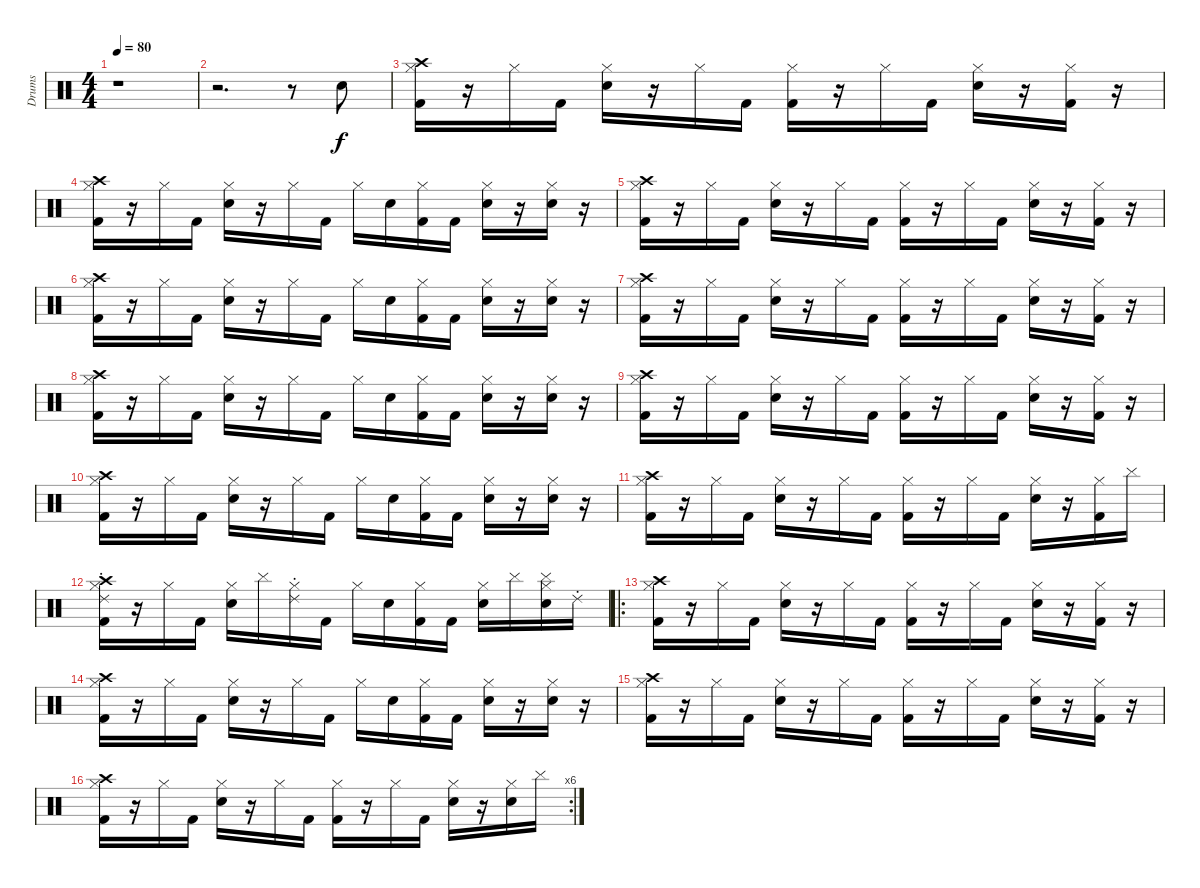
\track ("Drums" "Drums") {instrument percussion}
\staff {score}
\articulation defaults
\ts (4 4)
\tempo 80
\clef neutral
\ks c
r.1{dy f} |
r.2{d} r.8 "Snare (hit) 2".8 |
("Hi-Hat (closed)" "Crash high (hit)" "Kick (hit) 2").16 r.16 "Hi-Hat (closed)".16 "Kick (hit) 2".16 ("Hi-Hat (closed)" "Snare (hit) 2").16 r.16 "Hi-Hat (closed)".16 "Kick (hit) 2".16 ("Hi-Hat (closed)" "Kick (hit) 2").16 r.16 "Hi-Hat (closed)".16 "Kick (hit) 2".16 ("Hi-Hat (closed)" "Snare (hit) 2").16 r.16 ("Hi-Hat (closed)" "Kick (hit) 2").16 r.16 |
("Hi-Hat (closed)" "Crash high (hit)" "Kick (hit) 2").16 r.16 "Hi-Hat (closed)".16 "Kick (hit) 2".16 ("Hi-Hat (closed)" "Snare (hit) 2").16 r.16 "Hi-Hat (closed)".16 "Kick (hit) 2".16 "Hi-Hat (closed)".16 "Snare (hit) 2".16 ("Hi-Hat (closed)" "Kick (hit) 2").16 "Kick (hit) 2".16 ("Hi-Hat (closed)" "Snare (hit) 2").16 r.16 ("Hi-Hat (closed)" "Snare (hit) 2").16 r.16 |
("Hi-Hat (closed)" "Crash high (hit)" "Kick (hit) 2").16 r.16 "Hi-Hat (closed)".16 "Kick (hit) 2".16 ("Hi-Hat (closed)" "Snare (hit) 2").16 r.16 "Hi-Hat (closed)".16 "Kick (hit) 2".16 ("Hi-Hat (closed)" "Kick (hit) 2").16 r.16 "Hi-Hat (closed)".16 "Kick (hit) 2".16 ("Hi-Hat (closed)" "Snare (hit) 2").16 r.16 ("Hi-Hat (closed)" "Kick (hit) 2").16 r.16 |
("Hi-Hat (closed)" "Crash high (hit)" "Kick (hit) 2").16 r.16 "Hi-Hat (closed)".16 "Kick (hit) 2".16 ("Hi-Hat (closed)" "Snare (hit) 2").16 r.16 "Hi-Hat (closed)".16 "Kick (hit) 2".16 "Hi-Hat (closed)".16 "Snare (hit) 2".16 ("Hi-Hat (closed)" "Kick (hit) 2").16 "Kick (hit) 2".16 ("Hi-Hat (closed)" "Snare (hit) 2").16 r.16 ("Hi-Hat (closed)" "Snare (hit) 2").16 r.16 |
("Hi-Hat (closed)" "Crash high (hit)" "Kick (hit) 2").16 r.16 "Hi-Hat (closed)".16 "Kick (hit) 2".16 ("Hi-Hat (closed)" "Snare (hit) 2").16 r.16 "Hi-Hat (closed)".16 "Kick (hit) 2".16 ("Hi-Hat (closed)" "Kick (hit) 2").16 r.16 "Hi-Hat (closed)".16 "Kick (hit) 2".16 ("Hi-Hat (closed)" "Snare (hit) 2").16 r.16 ("Hi-Hat (closed)" "Kick (hit) 2").16 r.16 |
("Hi-Hat (closed)" "Crash high (hit)" "Kick (hit) 2").16 r.16 "Hi-Hat (closed)".16 "Kick (hit) 2".16 ("Hi-Hat (closed)" "Snare (hit) 2").16 r.16 "Hi-Hat (closed)".16 "Kick (hit) 2".16 "Hi-Hat (closed)".16 "Snare (hit) 2".16 ("Hi-Hat (closed)" "Kick (hit) 2").16 "Kick (hit) 2".16 ("Hi-Hat (closed)" "Snare (hit) 2").16 r.16 ("Hi-Hat (closed)" "Snare (hit) 2").16 r.16 |
("Hi-Hat (closed)" "Crash high (hit)" "Kick (hit) 2").16 r.16 "Hi-Hat (closed)".16 "Kick (hit) 2".16 ("Hi-Hat (closed)" "Snare (hit) 2").16 r.16 "Hi-Hat (closed)".16 "Kick (hit) 2".16 ("Hi-Hat (closed)" "Kick (hit) 2").16 r.16 "Hi-Hat (closed)".16 "Kick (hit) 2".16 ("Hi-Hat (closed)" "Snare (hit) 2").16 r.16 ("Hi-Hat (closed)" "Kick (hit) 2").16 r.16 |
("Hi-Hat (closed)" "Crash high (hit)" "Kick (hit) 2").16 r.16 "Hi-Hat (closed)".16 "Kick (hit) 2".16 ("Hi-Hat (closed)" "Snare (hit) 2").16 r.16 "Hi-Hat (closed)".16 "Kick (hit) 2".16 "Hi-Hat (closed)".16 "Snare (hit) 2".16 ("Hi-Hat (closed)" "Kick (hit) 2").16 "Kick (hit) 2".16 ("Hi-Hat (closed)" "Snare (hit) 2").16 r.16 ("Hi-Hat (closed)" "Snare (hit) 2").16 r.16 |
("Hi-Hat (closed)" "Crash high (hit)" "Kick (hit) 2").16 r.16 "Hi-Hat (closed)".16 "Kick (hit) 2".16 ("Hi-Hat (closed)" "Snare (hit) 2").16 r.16 "Hi-Hat (closed)".16 "Kick (hit) 2".16 ("Hi-Hat (closed)" "Kick (hit) 2").16 r.16 "Hi-Hat (closed)".16 "Kick (hit) 2".16 ("Hi-Hat (closed)" "Snare (hit) 2").16 r.16 ("Hi-Hat (closed)" "Kick (hit) 2").16 "Cymbal (hit)".16 |
("Hi-Hat (closed)" "Crash high (hit)" "Kick (hit) 2" "Ride (choke) 2").16 r.16 "Hi-Hat (closed)".16 "Kick (hit) 2".16 ("Hi-Hat (closed)" "Snare (hit) 2").16 "Cymbal (hit)".16 ("Hi-Hat (closed)" "Ride (choke) 2").16 "Kick (hit) 2".16 "Hi-Hat (closed)".16 "Snare (hit) 2".16 ("Hi-Hat (closed)" "Kick (hit) 2").16 "Kick (hit) 2".16 ("Hi-Hat (closed)" "Snare (hit) 2").16 "Cymbal (hit)".16 ("Hi-Hat (closed)" "Snare (hit) 2" "Cymbal (hit)").16 "Ride (choke) 2".16 |
\ro
("Hi-Hat (closed)" "Crash high (hit)" "Kick (hit) 2").16 r.16 "Hi-Hat (closed)".16 "Kick (hit) 2".16 ("Hi-Hat (closed)" "Snare (hit) 2").16 r.16 "Hi-Hat (closed)".16 "Kick (hit) 2".16 ("Hi-Hat (closed)" "Kick (hit) 2").16 r.16 "Hi-Hat (closed)".16 "Kick (hit) 2".16 ("Hi-Hat (closed)" "Snare (hit) 2").16 r.16 ("Hi-Hat (closed)" "Kick (hit) 2").16 r.16 |
("Hi-Hat (closed)" "Crash high (hit)" "Kick (hit) 2").16 r.16 "Hi-Hat (closed)".16 "Kick (hit) 2".16 ("Hi-Hat (closed)" "Snare (hit) 2").16 r.16 "Hi-Hat (closed)".16 "Kick (hit) 2".16 "Hi-Hat (closed)".16 "Snare (hit) 2".16 ("Hi-Hat (closed)" "Kick (hit) 2").16 "Kick (hit) 2".16 ("Hi-Hat (closed)" "Snare (hit) 2").16 r.16 ("Hi-Hat (closed)" "Snare (hit) 2").16 r.16 |
("Hi-Hat (closed)" "Crash high (hit)" "Kick (hit) 2").16 r.16 "Hi-Hat (closed)".16 "Kick (hit) 2".16 ("Hi-Hat (closed)" "Snare (hit) 2").16 r.16 "Hi-Hat (closed)".16 "Kick (hit) 2".16 ("Hi-Hat (closed)" "Kick (hit) 2").16 r.16 "Hi-Hat (closed)".16 "Kick (hit) 2".16 ("Hi-Hat (closed)" "Snare (hit) 2").16 r.16 ("Hi-Hat (closed)" "Kick (hit) 2").16 r.16 |
\rc 6
("Hi-Hat (closed)" "Crash high (hit)" "Kick (hit) 2").16 r.16 "Hi-Hat (closed)".16 "Kick (hit) 2".16 ("Hi-Hat (closed)" "Snare (hit) 2").16 r.16 "Hi-Hat (closed)".16 "Kick (hit) 2".16 ("Hi-Hat (closed)" "Kick (hit) 2").16 r.16 "Hi-Hat (closed)".16 "Kick (hit) 2".16 ("Hi-Hat (closed)" "Snare (hit) 2").16 r.16 ("Hi-Hat (closed)" "Snare (hit) 2").16 "Cymbal (hit)".16
